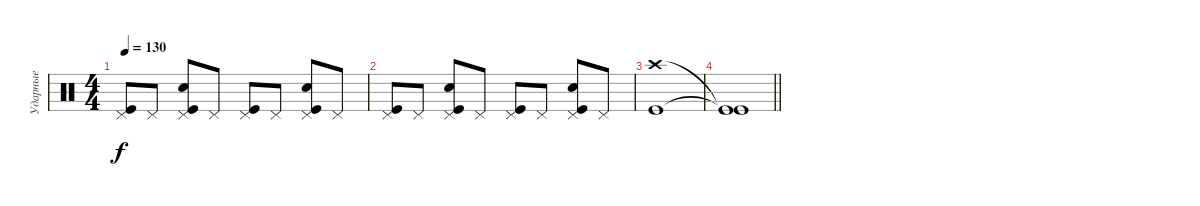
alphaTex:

\track ("Ударные" "Ударные") {instrument percussion}
\staff {score}
\articulation defaults
\ts (4 4)
\tempo 130
\clef neutral
\ks c
("Pedal Hi-Hat (hit)" "Kick (hit)").8{dy f} "Pedal Hi-Hat (hit)".8 ("Pedal Hi-Hat (hit)" "Kick (hit)" "Snare (hit) 2").8 "Pedal Hi-Hat (hit)".8 ("Pedal Hi-Hat (hit)" "Kick (hit)").8 "Pedal Hi-Hat (hit)".8 ("Pedal Hi-Hat (hit)" "Kick (hit)" "Snare (hit) 2").8 "Pedal Hi-Hat (hit)".8 |
("Pedal Hi-Hat (hit)" "Kick (hit)").8 "Pedal Hi-Hat (hit)".8 ("Pedal Hi-Hat (hit)" "Kick (hit)" "Snare (hit) 2").8 "Pedal Hi-Hat (hit)".8 ("Pedal Hi-Hat (hit)" "Kick (hit)").8 "Pedal Hi-Hat (hit)".8 ("Pedal Hi-Hat (hit)" "Kick (hit)" "Snare (hit) 2").8 "Pedal Hi-Hat (hit)".8 |
("Kick (hit)" "Crash high (hit)").1 |
\barLineRight lightlight
("Kick (hit)"{t} "Kick (hit)"{t}).1
